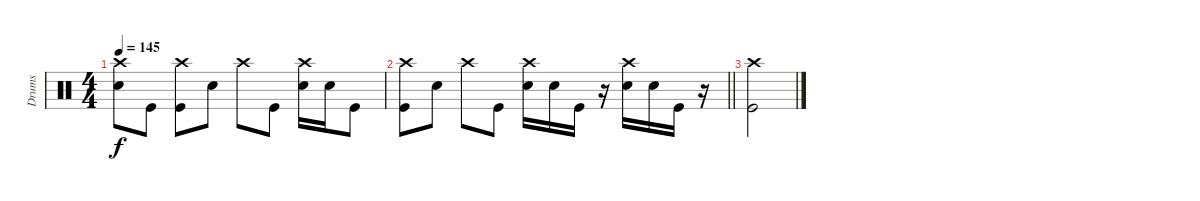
\track ("Drums" "Drums") {instrument percussion}
\staff {score}
\articulation defaults
\ts (4 4)
\tempo 145
\clef neutral
\ks c
("Crash high (hit)" "Electric Snare (hit)").8{dy f} "Kick (hit)".8 ("Crash high (hit)" "Kick (hit)").8 "Electric Snare (hit)".8 "Crash high (hit)".8 "Kick (hit)".8 ("Crash high (hit)" "Electric Snare (hit)").16 "Electric Snare (hit)".16 "Kick (hit)".8 |
\barLineRight lightlight
("Crash high (hit)" "Kick (hit)").8 "Electric Snare (hit)".8 "Crash high (hit)".8 "Kick (hit)".8 ("Crash high (hit)" "Electric Snare (hit)").16 "Electric Snare (hit)".16 "Kick (hit)".16 r.16 ("Crash high (hit)" "Electric Snare (hit)").16 "Electric Snare (hit)".16 "Kick (hit)".16 r.16 |
("Crash high (hit)" "Kick (hit)").2
